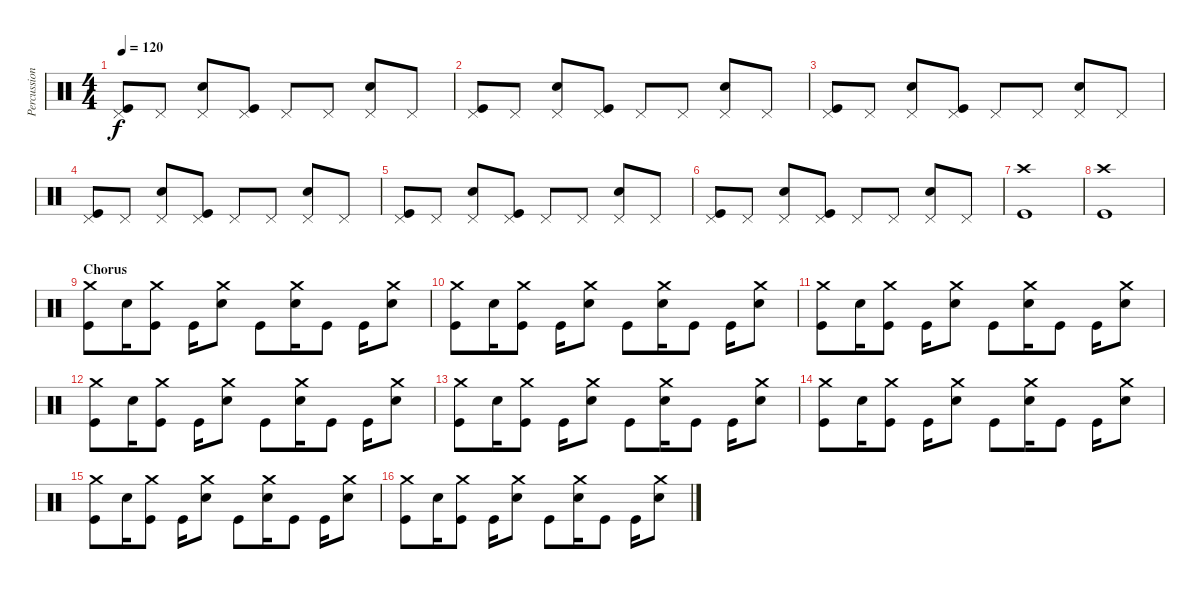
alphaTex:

\track ("Percussions" "Percussion") {instrument percussion}
\staff {score}
\articulation defaults
\ts (4 4)
\tempo 120
\clef neutral
\ks c
("Pedal Hi-Hat (hit)" "Kick (hit)").8{dy f} "Pedal Hi-Hat (hit)".8 ("Pedal Hi-Hat (hit)" "Electric Snare (hit)").8 ("Pedal Hi-Hat (hit)" "Kick (hit)").8 "Pedal Hi-Hat (hit)".8 "Pedal Hi-Hat (hit)".8 ("Pedal Hi-Hat (hit)" "Electric Snare (hit)").8 "Pedal Hi-Hat (hit)".8 |
("Pedal Hi-Hat (hit)" "Kick (hit)").8 "Pedal Hi-Hat (hit)".8 ("Pedal Hi-Hat (hit)" "Electric Snare (hit)").8 ("Pedal Hi-Hat (hit)" "Kick (hit)").8 "Pedal Hi-Hat (hit)".8 "Pedal Hi-Hat (hit)".8 ("Pedal Hi-Hat (hit)" "Electric Snare (hit)").8 "Pedal Hi-Hat (hit)".8 |
("Pedal Hi-Hat (hit)" "Kick (hit)").8 "Pedal Hi-Hat (hit)".8 ("Pedal Hi-Hat (hit)" "Electric Snare (hit)").8 ("Pedal Hi-Hat (hit)" "Kick (hit)").8 "Pedal Hi-Hat (hit)".8 "Pedal Hi-Hat (hit)".8 ("Pedal Hi-Hat (hit)" "Electric Snare (hit)").8 "Pedal Hi-Hat (hit)".8 |
("Pedal Hi-Hat (hit)" "Kick (hit)").8 "Pedal Hi-Hat (hit)".8 ("Pedal Hi-Hat (hit)" "Electric Snare (hit)").8 ("Pedal Hi-Hat (hit)" "Kick (hit)").8 "Pedal Hi-Hat (hit)".8 "Pedal Hi-Hat (hit)".8 ("Pedal Hi-Hat (hit)" "Electric Snare (hit)").8 "Pedal Hi-Hat (hit)".8 |
("Pedal Hi-Hat (hit)" "Kick (hit)").8 "Pedal Hi-Hat (hit)".8 ("Pedal Hi-Hat (hit)" "Electric Snare (hit)").8 ("Pedal Hi-Hat (hit)" "Kick (hit)").8 "Pedal Hi-Hat (hit)".8 "Pedal Hi-Hat (hit)".8 ("Pedal Hi-Hat (hit)" "Electric Snare (hit)").8 "Pedal Hi-Hat (hit)".8 |
("Pedal Hi-Hat (hit)" "Kick (hit)").8 "Pedal Hi-Hat (hit)".8 ("Pedal Hi-Hat (hit)" "Electric Snare (hit)").8 ("Pedal Hi-Hat (hit)" "Kick (hit)").8 "Pedal Hi-Hat (hit)".8 "Pedal Hi-Hat (hit)".8 ("Pedal Hi-Hat (hit)" "Electric Snare (hit)").8 "Pedal Hi-Hat (hit)".8 |
("Crash high (hit)" "Kick (hit)").1 |
("Crash high (hit)" "Kick (hit)").1 |
\section ("" "Chorus")
("Crash medium (hit)" "Kick (hit)").8 "Electric Snare (hit)".16 ("Crash medium (hit)" "Kick (hit)").8 "Kick (hit)".16 ("Crash medium (hit)" "Electric Snare (hit)").8 "Kick (hit)".8 ("Crash medium (hit)" "Electric Snare (hit)").16 "Kick (hit)".8 "Kick (hit)".16 ("Crash medium (hit)" "Electric Snare (hit)").8 |
("Crash medium (hit)" "Kick (hit)").8 "Electric Snare (hit)".16 ("Crash medium (hit)" "Kick (hit)").8 "Kick (hit)".16 ("Crash medium (hit)" "Electric Snare (hit)").8 "Kick (hit)".8 ("Crash medium (hit)" "Electric Snare (hit)").16 "Kick (hit)".8 "Kick (hit)".16 ("Crash medium (hit)" "Electric Snare (hit)").8 |
("Crash medium (hit)" "Kick (hit)").8 "Electric Snare (hit)".16 ("Crash medium (hit)" "Kick (hit)").8 "Kick (hit)".16 ("Crash medium (hit)" "Electric Snare (hit)").8 "Kick (hit)".8 ("Crash medium (hit)" "Electric Snare (hit)").16 "Kick (hit)".8 "Kick (hit)".16 ("Crash medium (hit)" "Electric Snare (hit)").8 |
("Crash medium (hit)" "Kick (hit)").8 "Electric Snare (hit)".16 ("Crash medium (hit)" "Kick (hit)").8 "Kick (hit)".16 ("Crash medium (hit)" "Electric Snare (hit)").8 "Kick (hit)".8 ("Crash medium (hit)" "Electric Snare (hit)").16 "Kick (hit)".8 "Kick (hit)".16 ("Crash medium (hit)" "Electric Snare (hit)").8 |
("Crash medium (hit)" "Kick (hit)").8 "Electric Snare (hit)".16 ("Crash medium (hit)" "Kick (hit)").8 "Kick (hit)".16 ("Crash medium (hit)" "Electric Snare (hit)").8 "Kick (hit)".8 ("Crash medium (hit)" "Electric Snare (hit)").16 "Kick (hit)".8 "Kick (hit)".16 ("Crash medium (hit)" "Electric Snare (hit)").8 |
("Crash medium (hit)" "Kick (hit)").8 "Electric Snare (hit)".16 ("Crash medium (hit)" "Kick (hit)").8 "Kick (hit)".16 ("Crash medium (hit)" "Electric Snare (hit)").8 "Kick (hit)".8 ("Crash medium (hit)" "Electric Snare (hit)").16 "Kick (hit)".8 "Kick (hit)".16 ("Crash medium (hit)" "Electric Snare (hit)").8 |
("Crash medium (hit)" "Kick (hit)").8 "Electric Snare (hit)".16 ("Crash medium (hit)" "Kick (hit)").8 "Kick (hit)".16 ("Crash medium (hit)" "Electric Snare (hit)").8 "Kick (hit)".8 ("Crash medium (hit)" "Electric Snare (hit)").16 "Kick (hit)".8 "Kick (hit)".16 ("Crash medium (hit)" "Electric Snare (hit)").8 |
("Crash medium (hit)" "Kick (hit)").8 "Electric Snare (hit)".16 ("Crash medium (hit)" "Kick (hit)").8 "Kick (hit)".16 ("Crash medium (hit)" "Electric Snare (hit)").8 "Kick (hit)".8 ("Crash medium (hit)" "Electric Snare (hit)").16 "Kick (hit)".8 "Kick (hit)".16 ("Crash medium (hit)" "Electric Snare (hit)").8
